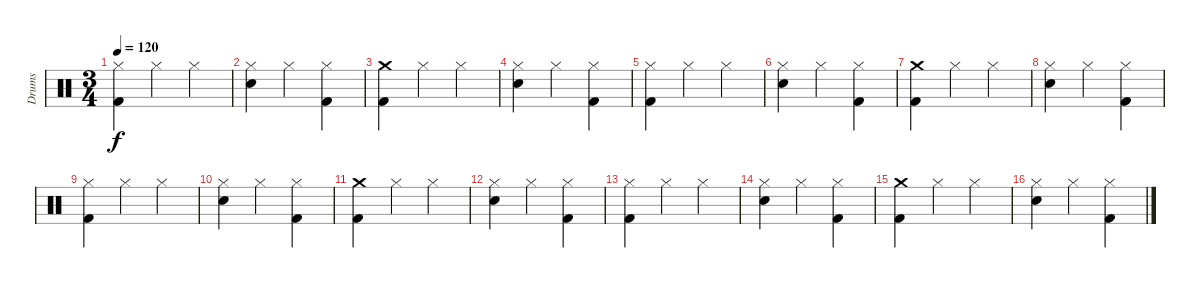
\track ("Drums" "Drums") {instrument percussion}
\staff {score}
\articulation defaults
\ts (3 4)
\tempo 120
\clef neutral
\ks c
("Hi-Hat (closed)" "Kick (hit) 2").4{dy f} "Hi-Hat (closed)".4 "Hi-Hat (closed)".4 |
("Hi-Hat (closed)" "Electric Snare (hit)").4 "Hi-Hat (closed)".4 ("Hi-Hat (closed)" "Kick (hit) 2").4 |
("Crash medium (hit)" "Kick (hit) 2").4 "Hi-Hat (closed)".4 "Hi-Hat (closed)".4 |
("Hi-Hat (closed)" "Electric Snare (hit)").4 "Hi-Hat (closed)".4 ("Hi-Hat (closed)" "Kick (hit) 2").4 |
("Hi-Hat (closed)" "Kick (hit) 2").4 "Hi-Hat (closed)".4 "Hi-Hat (closed)".4 |
("Hi-Hat (closed)" "Electric Snare (hit)").4 "Hi-Hat (closed)".4 ("Hi-Hat (closed)" "Kick (hit) 2").4 |
("Crash medium (hit)" "Kick (hit) 2").4 "Hi-Hat (closed)".4 "Hi-Hat (closed)".4 |
("Hi-Hat (closed)" "Electric Snare (hit)").4 "Hi-Hat (closed)".4 ("Hi-Hat (closed)" "Kick (hit) 2").4 |
("Hi-Hat (closed)" "Kick (hit) 2").4 "Hi-Hat (closed)".4 "Hi-Hat (closed)".4 |
("Hi-Hat (closed)" "Electric Snare (hit)").4 "Hi-Hat (closed)".4 ("Hi-Hat (closed)" "Kick (hit) 2").4 |
("Crash medium (hit)" "Kick (hit) 2").4 "Hi-Hat (closed)".4 "Hi-Hat (closed)".4 |
("Hi-Hat (closed)" "Electric Snare (hit)").4 "Hi-Hat (closed)".4 ("Hi-Hat (closed)" "Kick (hit) 2").4 |
("Hi-Hat (closed)" "Kick (hit) 2").4 "Hi-Hat (closed)".4 "Hi-Hat (closed)".4 |
("Hi-Hat (closed)" "Electric Snare (hit)").4 "Hi-Hat (closed)".4 ("Hi-Hat (closed)" "Kick (hit) 2").4 |
("Crash medium (hit)" "Kick (hit) 2").4 "Hi-Hat (closed)".4 "Hi-Hat (closed)".4 |
("Hi-Hat (closed)" "Electric Snare (hit)").4 "Hi-Hat (closed)".4 ("Hi-Hat (closed)" "Kick (hit) 2").4
